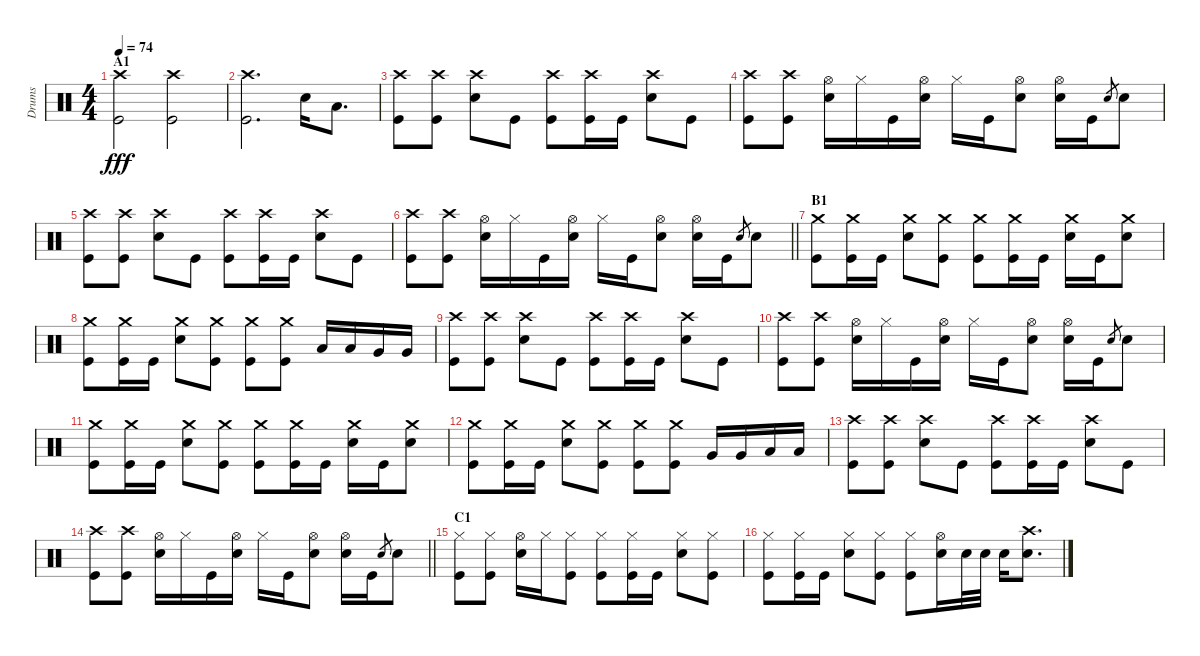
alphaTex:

\track ("Drums" "Drums") {instrument percussion}
\staff {score}
\articulation defaults
\ts (4 4)
\section ("" "A1")
\tempo 74
\clef neutral
\ks c
("Crash high (hit)" "Kick (hit)").2{dy fff} ("Crash high (hit)" "Kick (hit)").2 |
("Crash high (hit)" "Kick (hit)").2{d} "Snare (hit) 2".16 "Low Tom (hit)".8{d} |
("Crash high (hit)" "Kick (hit)").8 ("Crash high (hit)" "Kick (hit)").8 ("Crash high (hit)" "Snare (hit) 2").8 "Kick (hit)".8 ("Crash high (hit)" "Kick (hit)").8 ("Crash high (hit)" "Kick (hit)").16 "Kick (hit)".16 ("Crash high (hit)" "Snare (hit) 2").8 "Kick (hit)".8 |
("Crash high (hit)" "Kick (hit)").8 ("Crash high (hit)" "Kick (hit)").8 ("Hi-Hat (open)" "Snare (hit) 2").16 "Hi-Hat (closed)".16 "Kick (hit)".16 ("Hi-Hat (open)" "Snare (hit) 2").16 "Hi-Hat (closed)".16 "Kick (hit)".16 ("Hi-Hat (open)" "Snare (hit) 2").8 ("Hi-Hat (open)" "Snare (hit) 2").16 "Kick (hit)".16 "Snare (hit) 2".8{gr} "Snare (hit) 2".8 |
("Crash high (hit)" "Kick (hit)").8 ("Crash high (hit)" "Kick (hit)").8 ("Crash high (hit)" "Snare (hit) 2").8 "Kick (hit)".8 ("Crash high (hit)" "Kick (hit)").8 ("Crash high (hit)" "Kick (hit)").16 "Kick (hit)".16 ("Crash high (hit)" "Snare (hit) 2").8 "Kick (hit)".8 |
\barLineRight lightlight
("Crash high (hit)" "Kick (hit)").8 ("Crash high (hit)" "Kick (hit)").8 ("Hi-Hat (open)" "Snare (hit) 2").16 "Hi-Hat (closed)".16 "Kick (hit)".16 ("Hi-Hat (open)" "Snare (hit) 2").16 "Hi-Hat (closed)".16 "Kick (hit)".16 ("Hi-Hat (open)" "Snare (hit) 2").8 ("Hi-Hat (open)" "Snare (hit) 2").16 "Kick (hit)".16 "Snare (hit) 2".8{gr} "Snare (hit) 2".8 |
\section ("" "B1")
("Crash medium (hit)" "Kick (hit)").8 ("Crash medium (hit)" "Kick (hit)").16 "Kick (hit)".16 ("Crash medium (hit)" "Snare (hit) 2").8 ("Crash medium (hit)" "Kick (hit)").8 ("Crash medium (hit)" "Kick (hit)").8 ("Crash medium (hit)" "Kick (hit)").16 "Kick (hit)".16 ("Crash medium (hit)" "Snare (hit) 2").16 "Kick (hit)".16 ("Crash medium (hit)" "Snare (hit) 2").8 |
("Crash medium (hit)" "Kick (hit)").8 ("Crash medium (hit)" "Kick (hit)").16 "Kick (hit)".16 ("Crash medium (hit)" "Snare (hit) 2").8 ("Crash medium (hit)" "Kick (hit)").8 ("Crash medium (hit)" "Kick (hit)").8 ("Crash medium (hit)" "Kick (hit)").8 "Low Tom (hit)".16 "Low Tom (hit)".16 "Very Low Tom (hit)".16 "Very Low Tom (hit)".16 |
("Crash high (hit)" "Kick (hit)").8 ("Crash high (hit)" "Kick (hit)").8 ("Crash high (hit)" "Snare (hit) 2").8 "Kick (hit)".8 ("Crash high (hit)" "Kick (hit)").8 ("Crash high (hit)" "Kick (hit)").16 "Kick (hit)".16 ("Crash high (hit)" "Snare (hit) 2").8 "Kick (hit)".8 |
("Crash high (hit)" "Kick (hit)").8 ("Crash high (hit)" "Kick (hit)").8 ("Hi-Hat (open)" "Snare (hit) 2").16 "Hi-Hat (closed)".16 "Kick (hit)".16 ("Hi-Hat (open)" "Snare (hit) 2").16 "Hi-Hat (closed)".16 "Kick (hit)".16 ("Hi-Hat (open)" "Snare (hit) 2").8 ("Hi-Hat (open)" "Snare (hit) 2").16 "Kick (hit)".16 "Snare (hit) 2".8{gr} "Snare (hit) 2".8 |
("Crash medium (hit)" "Kick (hit)").8 ("Crash medium (hit)" "Kick (hit)").16 "Kick (hit)".16 ("Crash medium (hit)" "Snare (hit) 2").8 ("Crash medium (hit)" "Kick (hit)").8 ("Crash medium (hit)" "Kick (hit)").8 ("Crash medium (hit)" "Kick (hit)").16 "Kick (hit)".16 ("Crash medium (hit)" "Snare (hit) 2").16 "Kick (hit)".16 ("Crash medium (hit)" "Snare (hit) 2").8 |
("Crash medium (hit)" "Kick (hit)").8 ("Crash medium (hit)" "Kick (hit)").16 "Kick (hit)".16 ("Crash medium (hit)" "Snare (hit) 2").8 ("Crash medium (hit)" "Kick (hit)").8 ("Crash medium (hit)" "Kick (hit)").8 ("Crash medium (hit)" "Kick (hit)").8 "Very Low Tom (hit)".16 "Very Low Tom (hit)".16 "Low Floor Tom (hit)".16 "Low Floor Tom (hit)".16 |
("Crash high (hit)" "Kick (hit)").8 ("Crash high (hit)" "Kick (hit)").8 ("Crash high (hit)" "Snare (hit) 2").8 "Kick (hit)".8 ("Crash high (hit)" "Kick (hit)").8 ("Crash high (hit)" "Kick (hit)").16 "Kick (hit)".16 ("Crash high (hit)" "Snare (hit) 2").8 "Kick (hit)".8 |
\barLineRight lightlight
("Crash high (hit)" "Kick (hit)").8 ("Crash high (hit)" "Kick (hit)").8 ("Hi-Hat (open)" "Snare (hit) 2").16 "Hi-Hat (closed)".16 "Kick (hit)".16 ("Hi-Hat (open)" "Snare (hit) 2").16 "Hi-Hat (closed)".16 "Kick (hit)".16 ("Hi-Hat (open)" "Snare (hit) 2").8 ("Hi-Hat (open)" "Snare (hit) 2").16 "Kick (hit)".16 "Snare (hit) 2".8{gr} "Snare (hit) 2".8 |
\section ("" "C1")
("Hi-Hat (closed)" "Kick (hit)").8 ("Hi-Hat (closed)" "Kick (hit)").8 ("Hi-Hat (open)" "Snare (hit) 2").16 "Hi-Hat (closed)".16 ("Hi-Hat (closed)" "Kick (hit)").8 ("Hi-Hat (closed)" "Kick (hit)").8 ("Hi-Hat (closed)" "Kick (hit)").16 "Kick (hit)".16 ("Hi-Hat (closed)" "Snare (hit) 2").8 ("Hi-Hat (closed)" "Kick (hit)").8 |
("Hi-Hat (closed)" "Kick (hit)").8 ("Hi-Hat (closed)" "Kick (hit)").16 "Kick (hit)".16 ("Hi-Hat (closed)" "Snare (hit) 2").8 ("Hi-Hat (closed)" "Kick (hit)").8 ("Hi-Hat (closed)" "Kick (hit)").8 ("Hi-Hat (open)" "Snare (hit) 2").16 "Snare (hit) 2".32 "Snare (hit) 2".32 "Snare (hit) 2".16 ("Crash high (hit)" "Snare (hit) 2").8{d}
